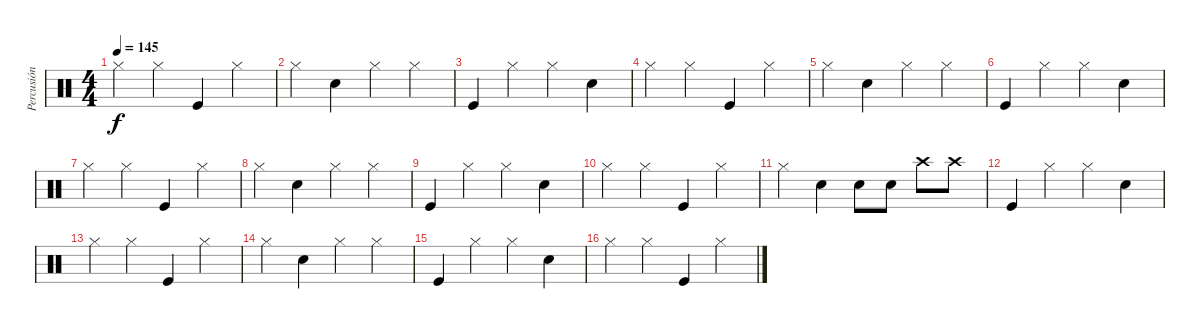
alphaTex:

\track ("Percusión" "Percusión") {instrument percussion}
\staff {score}
\articulation defaults
\ts (4 4)
\tempo 145
\clef neutral
\ks c "Hi-Hat (closed)".4{dy f} "Hi-Hat (closed)".4 "Kick (hit)".4 "Hi-Hat (closed)".4
|
"Hi-Hat (closed)".4 "Snare (hit) 2".4 "Hi-Hat (closed)".4 "Hi-Hat (closed)".4 |
"Kick (hit)".4 "Hi-Hat (closed)".4 "Hi-Hat (closed)".4 "Snare (hit) 2".4 |
"Hi-Hat (closed)".4 "Hi-Hat (closed)".4 "Kick (hit)".4 "Hi-Hat (closed)".4 |
"Hi-Hat (closed)".4 "Snare (hit) 2".4 "Hi-Hat (closed)".4 "Hi-Hat (closed)".4 |
"Kick (hit)".4 "Hi-Hat (closed)".4 "Hi-Hat (closed)".4 "Snare (hit) 2".4 |
"Hi-Hat (closed)".4 "Hi-Hat (closed)".4 "Kick (hit)".4 "Hi-Hat (closed)".4 |
"Hi-Hat (closed)".4 "Snare (hit) 2".4 "Hi-Hat (closed)".4 "Hi-Hat (closed)".4 |
"Kick (hit)".4 "Hi-Hat (closed)".4 "Hi-Hat (closed)".4 "Snare (hit) 2".4 |
"Hi-Hat (closed)".4 "Hi-Hat (closed)".4 "Kick (hit)".4 "Hi-Hat (closed)".4 |
"Hi-Hat (closed)".4 "Snare (hit) 2".4 "Snare (hit) 2".8 "Snare (hit) 2".8 "Crash high (hit)".8 "Crash high (hit)".8 |
"Kick (hit)".4 "Hi-Hat (closed)".4 "Hi-Hat (closed)".4 "Snare (hit) 2".4 |
"Hi-Hat (closed)".4 "Hi-Hat (closed)".4 "Kick (hit)".4 "Hi-Hat (closed)".4 |
"Hi-Hat (closed)".4 "Snare (hit) 2".4 "Hi-Hat (closed)".4 "Hi-Hat (closed)".4 |
"Kick (hit)".4 "Hi-Hat (closed)".4 "Hi-Hat (closed)".4 "Snare (hit) 2".4 |
"Hi-Hat (closed)".4 "Hi-Hat (closed)".4 "Kick (hit)".4 "Hi-Hat (closed)".4
